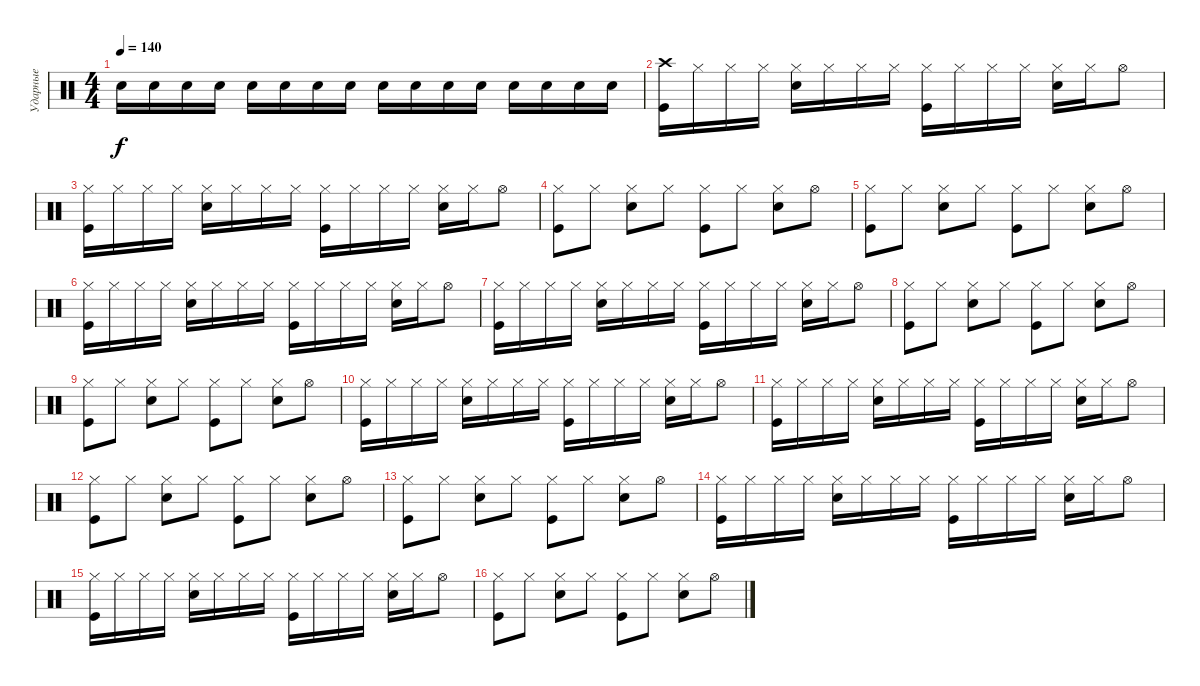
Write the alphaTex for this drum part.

\track ("Ударные" "Ударные") {instrument percussion}
\staff {score}
\articulation defaults
\ts (4 4)
\tempo 140
\clef neutral
\ks c "Snare (hit) 2".16{dy f} "Snare (hit) 2".16 "Snare (hit) 2".16 "Snare (hit) 2".16 "Snare (hit) 2".16 "Snare (hit) 2".16 "Snare (hit) 2".16 "Snare (hit) 2".16 "Snare (hit) 2".16 "Snare (hit) 2".16 "Snare (hit) 2".16 "Snare (hit) 2".16 "Snare (hit) 2".16 "Snare (hit) 2".16 "Snare (hit) 2".16 "Snare (hit) 2".16
|
("Crash high (hit)" "Kick (hit)").16 "Hi-Hat (closed)".16 "Hi-Hat (closed)".16 "Hi-Hat (closed)".16 ("Hi-Hat (closed)" "Snare (hit) 2").16 "Hi-Hat (closed)".16 "Hi-Hat (closed)".16 "Hi-Hat (closed)".16 ("Hi-Hat (closed)" "Kick (hit)").16 "Hi-Hat (closed)".16 "Hi-Hat (closed)".16 "Hi-Hat (closed)".16 ("Hi-Hat (closed)" "Snare (hit) 2").16 "Hi-Hat (closed)".16 "Hi-Hat (open)".8 |
("Hi-Hat (closed)" "Kick (hit)").16 "Hi-Hat (closed)".16 "Hi-Hat (closed)".16 "Hi-Hat (closed)".16 ("Hi-Hat (closed)" "Snare (hit) 2").16 "Hi-Hat (closed)".16 "Hi-Hat (closed)".16 "Hi-Hat (closed)".16 ("Hi-Hat (closed)" "Kick (hit)").16 "Hi-Hat (closed)".16 "Hi-Hat (closed)".16 "Hi-Hat (closed)".16 ("Hi-Hat (closed)" "Snare (hit) 2").16 "Hi-Hat (closed)".16 "Hi-Hat (open)".8 |
("Hi-Hat (closed)" "Kick (hit)").8 "Hi-Hat (closed)".8 ("Hi-Hat (closed)" "Snare (hit) 2").8 "Hi-Hat (closed)".8 ("Hi-Hat (closed)" "Kick (hit)").8 "Hi-Hat (closed)".8 ("Hi-Hat (closed)" "Snare (hit) 2").8 "Hi-Hat (open)".8 |
("Hi-Hat (closed)" "Kick (hit)").8 "Hi-Hat (closed)".8 ("Hi-Hat (closed)" "Snare (hit) 2").8 "Hi-Hat (closed)".8 ("Hi-Hat (closed)" "Kick (hit)").8 "Hi-Hat (closed)".8 ("Hi-Hat (closed)" "Snare (hit) 2").8 "Hi-Hat (open)".8 |
("Hi-Hat (closed)" "Kick (hit)").16 "Hi-Hat (closed)".16 "Hi-Hat (closed)".16 "Hi-Hat (closed)".16 ("Hi-Hat (closed)" "Snare (hit) 2").16 "Hi-Hat (closed)".16 "Hi-Hat (closed)".16 "Hi-Hat (closed)".16 ("Hi-Hat (closed)" "Kick (hit)").16 "Hi-Hat (closed)".16 "Hi-Hat (closed)".16 "Hi-Hat (closed)".16 ("Hi-Hat (closed)" "Snare (hit) 2").16 "Hi-Hat (closed)".16 "Hi-Hat (open)".8 |
("Hi-Hat (closed)" "Kick (hit)").16 "Hi-Hat (closed)".16 "Hi-Hat (closed)".16 "Hi-Hat (closed)".16 ("Hi-Hat (closed)" "Snare (hit) 2").16 "Hi-Hat (closed)".16 "Hi-Hat (closed)".16 "Hi-Hat (closed)".16 ("Hi-Hat (closed)" "Kick (hit)").16 "Hi-Hat (closed)".16 "Hi-Hat (closed)".16 "Hi-Hat (closed)".16 ("Hi-Hat (closed)" "Snare (hit) 2").16 "Hi-Hat (closed)".16 "Hi-Hat (open)".8 |
("Hi-Hat (closed)" "Kick (hit)").8 "Hi-Hat (closed)".8 ("Hi-Hat (closed)" "Snare (hit) 2").8 "Hi-Hat (closed)".8 ("Hi-Hat (closed)" "Kick (hit)").8 "Hi-Hat (closed)".8 ("Hi-Hat (closed)" "Snare (hit) 2").8 "Hi-Hat (open)".8 |
("Hi-Hat (closed)" "Kick (hit)").8 "Hi-Hat (closed)".8 ("Hi-Hat (closed)" "Snare (hit) 2").8 "Hi-Hat (closed)".8 ("Hi-Hat (closed)" "Kick (hit)").8 "Hi-Hat (closed)".8 ("Hi-Hat (closed)" "Snare (hit) 2").8 "Hi-Hat (open)".8 |
("Hi-Hat (closed)" "Kick (hit)").16 "Hi-Hat (closed)".16 "Hi-Hat (closed)".16 "Hi-Hat (closed)".16 ("Hi-Hat (closed)" "Snare (hit) 2").16 "Hi-Hat (closed)".16 "Hi-Hat (closed)".16 "Hi-Hat (closed)".16 ("Hi-Hat (closed)" "Kick (hit)").16 "Hi-Hat (closed)".16 "Hi-Hat (closed)".16 "Hi-Hat (closed)".16 ("Hi-Hat (closed)" "Snare (hit) 2").16 "Hi-Hat (closed)".16 "Hi-Hat (open)".8 |
("Hi-Hat (closed)" "Kick (hit)").16 "Hi-Hat (closed)".16 "Hi-Hat (closed)".16 "Hi-Hat (closed)".16 ("Hi-Hat (closed)" "Snare (hit) 2").16 "Hi-Hat (closed)".16 "Hi-Hat (closed)".16 "Hi-Hat (closed)".16 ("Hi-Hat (closed)" "Kick (hit)").16 "Hi-Hat (closed)".16 "Hi-Hat (closed)".16 "Hi-Hat (closed)".16 ("Hi-Hat (closed)" "Snare (hit) 2").16 "Hi-Hat (closed)".16 "Hi-Hat (open)".8 |
("Hi-Hat (closed)" "Kick (hit)").8 "Hi-Hat (closed)".8 ("Hi-Hat (closed)" "Snare (hit) 2").8 "Hi-Hat (closed)".8 ("Hi-Hat (closed)" "Kick (hit)").8 "Hi-Hat (closed)".8 ("Hi-Hat (closed)" "Snare (hit) 2").8 "Hi-Hat (open)".8 |
("Hi-Hat (closed)" "Kick (hit)").8 "Hi-Hat (closed)".8 ("Hi-Hat (closed)" "Snare (hit) 2").8 "Hi-Hat (closed)".8 ("Hi-Hat (closed)" "Kick (hit)").8 "Hi-Hat (closed)".8 ("Hi-Hat (closed)" "Snare (hit) 2").8 "Hi-Hat (open)".8 |
("Hi-Hat (closed)" "Kick (hit)").16 "Hi-Hat (closed)".16 "Hi-Hat (closed)".16 "Hi-Hat (closed)".16 ("Hi-Hat (closed)" "Snare (hit) 2").16 "Hi-Hat (closed)".16 "Hi-Hat (closed)".16 "Hi-Hat (closed)".16 ("Hi-Hat (closed)" "Kick (hit)").16 "Hi-Hat (closed)".16 "Hi-Hat (closed)".16 "Hi-Hat (closed)".16 ("Hi-Hat (closed)" "Snare (hit) 2").16 "Hi-Hat (closed)".16 "Hi-Hat (open)".8 |
("Hi-Hat (closed)" "Kick (hit)").16 "Hi-Hat (closed)".16 "Hi-Hat (closed)".16 "Hi-Hat (closed)".16 ("Hi-Hat (closed)" "Snare (hit) 2").16 "Hi-Hat (closed)".16 "Hi-Hat (closed)".16 "Hi-Hat (closed)".16 ("Hi-Hat (closed)" "Kick (hit)").16 "Hi-Hat (closed)".16 "Hi-Hat (closed)".16 "Hi-Hat (closed)".16 ("Hi-Hat (closed)" "Snare (hit) 2").16 "Hi-Hat (closed)".16 "Hi-Hat (open)".8 |
("Hi-Hat (closed)" "Kick (hit)").8 "Hi-Hat (closed)".8 ("Hi-Hat (closed)" "Snare (hit) 2").8 "Hi-Hat (closed)".8 ("Hi-Hat (closed)" "Kick (hit)").8 "Hi-Hat (closed)".8 ("Hi-Hat (closed)" "Snare (hit) 2").8 "Hi-Hat (open)".8
